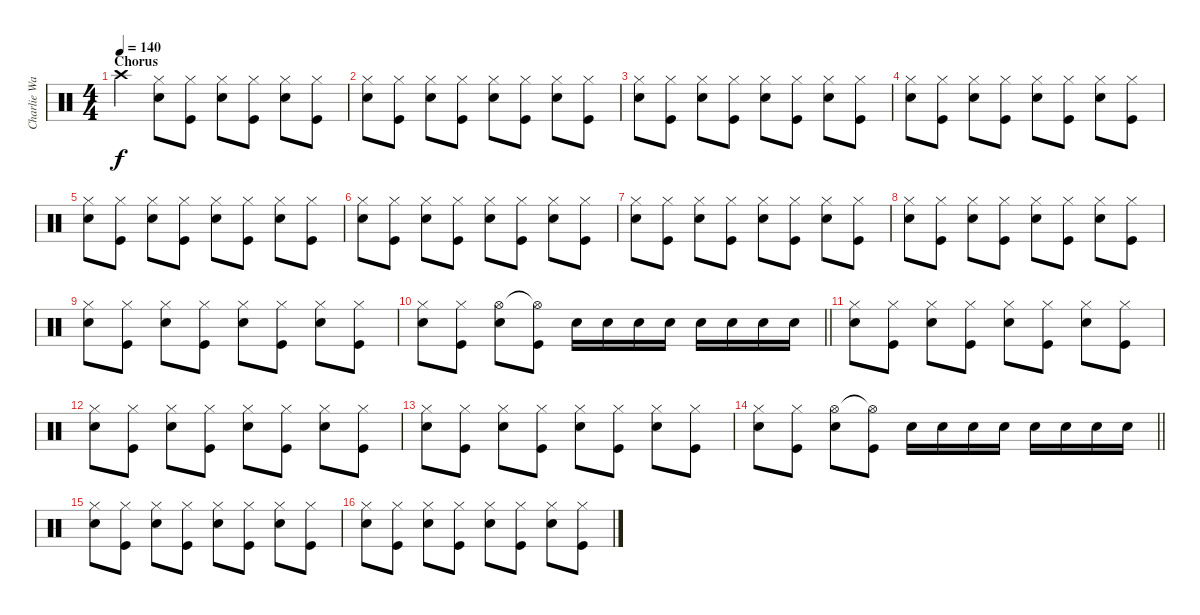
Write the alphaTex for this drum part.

\track ("Charlie Watts" "Charlie Wa") {instrument percussion}
\staff {score}
\articulation defaults
\ts (4 4)
\section ("" "Chorus")
\tempo 140
\clef neutral
\ks c "Crash high (hit)".4{dy f}
("Snare (hit) 2" "Hi-Hat (closed)").8 ("Kick (hit)" "Hi-Hat (closed)").8 ("Snare (hit) 2" "Hi-Hat (closed)").8 ("Kick (hit)" "Hi-Hat (closed)").8 ("Snare (hit) 2" "Hi-Hat (closed)").8 ("Kick (hit)" "Hi-Hat (closed)").8 |
("Snare (hit) 2" "Hi-Hat (closed)").8 ("Kick (hit)" "Hi-Hat (closed)").8 ("Snare (hit) 2" "Hi-Hat (closed)").8 ("Kick (hit)" "Hi-Hat (closed)").8 ("Snare (hit) 2" "Hi-Hat (closed)").8 ("Kick (hit)" "Hi-Hat (closed)").8 ("Snare (hit) 2" "Hi-Hat (closed)").8 ("Kick (hit)" "Hi-Hat (closed)").8 |
("Snare (hit) 2" "Hi-Hat (closed)").8 ("Kick (hit)" "Hi-Hat (closed)").8 ("Snare (hit) 2" "Hi-Hat (closed)").8 ("Kick (hit)" "Hi-Hat (closed)").8 ("Snare (hit) 2" "Hi-Hat (closed)").8 ("Kick (hit)" "Hi-Hat (closed)").8 ("Snare (hit) 2" "Hi-Hat (closed)").8 ("Kick (hit)" "Hi-Hat (closed)").8 |
("Snare (hit) 2" "Hi-Hat (closed)").8 ("Kick (hit)" "Hi-Hat (closed)").8 ("Snare (hit) 2" "Hi-Hat (closed)").8 ("Kick (hit)" "Hi-Hat (closed)").8 ("Snare (hit) 2" "Hi-Hat (closed)").8 ("Kick (hit)" "Hi-Hat (closed)").8 ("Snare (hit) 2" "Hi-Hat (closed)").8 ("Kick (hit)" "Hi-Hat (closed)").8 |
("Snare (hit) 2" "Hi-Hat (closed)").8 ("Kick (hit)" "Hi-Hat (closed)").8 ("Snare (hit) 2" "Hi-Hat (closed)").8 ("Kick (hit)" "Hi-Hat (closed)").8 ("Snare (hit) 2" "Hi-Hat (closed)").8 ("Kick (hit)" "Hi-Hat (closed)").8 ("Snare (hit) 2" "Hi-Hat (closed)").8 ("Kick (hit)" "Hi-Hat (closed)").8 |
("Snare (hit) 2" "Hi-Hat (closed)").8 ("Kick (hit)" "Hi-Hat (closed)").8 ("Snare (hit) 2" "Hi-Hat (closed)").8 ("Kick (hit)" "Hi-Hat (closed)").8 ("Snare (hit) 2" "Hi-Hat (closed)").8 ("Kick (hit)" "Hi-Hat (closed)").8 ("Snare (hit) 2" "Hi-Hat (closed)").8 ("Kick (hit)" "Hi-Hat (closed)").8 |
("Snare (hit) 2" "Hi-Hat (closed)").8 ("Kick (hit)" "Hi-Hat (closed)").8 ("Snare (hit) 2" "Hi-Hat (closed)").8 ("Kick (hit)" "Hi-Hat (closed)").8 ("Snare (hit) 2" "Hi-Hat (closed)").8 ("Kick (hit)" "Hi-Hat (closed)").8 ("Snare (hit) 2" "Hi-Hat (closed)").8 ("Kick (hit)" "Hi-Hat (closed)").8 |
("Snare (hit) 2" "Hi-Hat (closed)").8 ("Kick (hit)" "Hi-Hat (closed)").8 ("Snare (hit) 2" "Hi-Hat (closed)").8 ("Kick (hit)" "Hi-Hat (closed)").8 ("Snare (hit) 2" "Hi-Hat (closed)").8 ("Kick (hit)" "Hi-Hat (closed)").8 ("Snare (hit) 2" "Hi-Hat (closed)").8 ("Kick (hit)" "Hi-Hat (closed)").8 |
("Snare (hit) 2" "Hi-Hat (closed)").8 ("Kick (hit)" "Hi-Hat (closed)").8 ("Snare (hit) 2" "Hi-Hat (closed)").8 ("Kick (hit)" "Hi-Hat (closed)").8 ("Snare (hit) 2" "Hi-Hat (closed)").8 ("Kick (hit)" "Hi-Hat (closed)").8 ("Snare (hit) 2" "Hi-Hat (closed)").8 ("Kick (hit)" "Hi-Hat (closed)").8 |
\barLineRight lightlight
("Snare (hit) 2" "Hi-Hat (closed)").8 ("Kick (hit)" "Hi-Hat (closed)").8 ("Snare (hit) 2" "Hi-Hat (open)").8 ("Kick (hit)" "Hi-Hat (open)"{t}).8 "Snare (hit) 2".16 "Snare (hit) 2".16 "Snare (hit) 2".16 "Snare (hit) 2".16 "Snare (hit) 2".16 "Snare (hit) 2".16 "Snare (hit) 2".16 "Snare (hit) 2".16 |
("Snare (hit) 2" "Hi-Hat (closed)").8 ("Kick (hit)" "Hi-Hat (closed)").8 ("Snare (hit) 2" "Hi-Hat (closed)").8 ("Kick (hit)" "Hi-Hat (closed)").8 ("Snare (hit) 2" "Hi-Hat (closed)").8 ("Kick (hit)" "Hi-Hat (closed)").8 ("Snare (hit) 2" "Hi-Hat (closed)").8 ("Kick (hit)" "Hi-Hat (closed)").8 |
("Snare (hit) 2" "Hi-Hat (closed)").8 ("Kick (hit)" "Hi-Hat (closed)").8 ("Snare (hit) 2" "Hi-Hat (closed)").8 ("Kick (hit)" "Hi-Hat (closed)").8 ("Snare (hit) 2" "Hi-Hat (closed)").8 ("Kick (hit)" "Hi-Hat (closed)").8 ("Snare (hit) 2" "Hi-Hat (closed)").8 ("Kick (hit)" "Hi-Hat (closed)").8 |
("Snare (hit) 2" "Hi-Hat (closed)").8 ("Kick (hit)" "Hi-Hat (closed)").8 ("Snare (hit) 2" "Hi-Hat (closed)").8 ("Kick (hit)" "Hi-Hat (closed)").8 ("Snare (hit) 2" "Hi-Hat (closed)").8 ("Kick (hit)" "Hi-Hat (closed)").8 ("Snare (hit) 2" "Hi-Hat (closed)").8 ("Kick (hit)" "Hi-Hat (closed)").8 |
\barLineRight lightlight
("Snare (hit) 2" "Hi-Hat (closed)").8 ("Kick (hit)" "Hi-Hat (closed)").8 ("Snare (hit) 2" "Hi-Hat (open)").8 ("Kick (hit)" "Hi-Hat (open)"{t}).8 "Snare (hit) 2".16 "Snare (hit) 2".16 "Snare (hit) 2".16 "Snare (hit) 2".16 "Snare (hit) 2".16 "Snare (hit) 2".16 "Snare (hit) 2".16 "Snare (hit) 2".16 |
("Snare (hit) 2" "Hi-Hat (closed)").8 ("Kick (hit)" "Hi-Hat (closed)").8 ("Snare (hit) 2" "Hi-Hat (closed)").8 ("Kick (hit)" "Hi-Hat (closed)").8 ("Snare (hit) 2" "Hi-Hat (closed)").8 ("Kick (hit)" "Hi-Hat (closed)").8 ("Snare (hit) 2" "Hi-Hat (closed)").8 ("Kick (hit)" "Hi-Hat (closed)").8 |
("Snare (hit) 2" "Hi-Hat (closed)").8 ("Kick (hit)" "Hi-Hat (closed)").8 ("Snare (hit) 2" "Hi-Hat (closed)").8 ("Kick (hit)" "Hi-Hat (closed)").8 ("Snare (hit) 2" "Hi-Hat (closed)").8 ("Kick (hit)" "Hi-Hat (closed)").8 ("Snare (hit) 2" "Hi-Hat (closed)").8 ("Kick (hit)" "Hi-Hat (closed)").8
